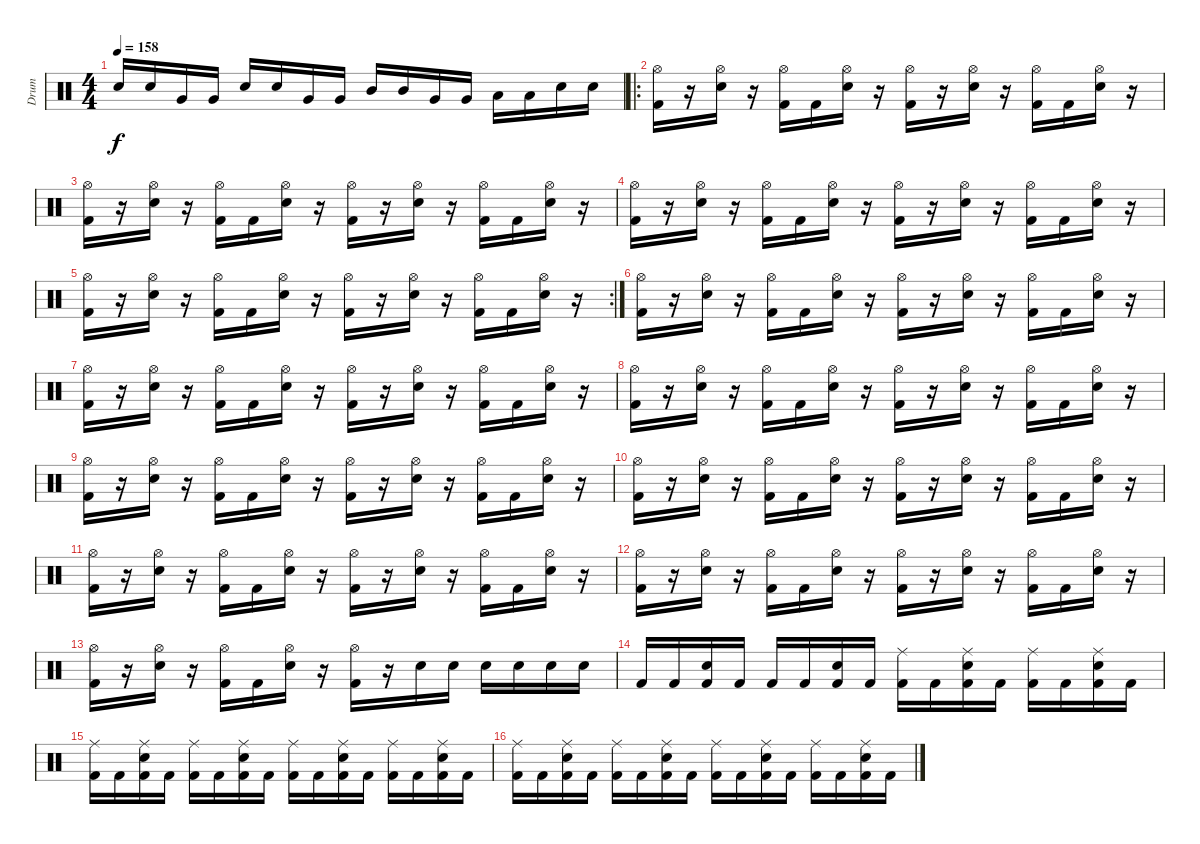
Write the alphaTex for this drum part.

\track ("Drum" "Drum") {instrument percussion}
\staff {score}
\articulation defaults
\ts (4 4)
\tempo 158
\clef neutral
\ks c "Electric Snare (hit)".16{dy f} "Electric Snare (hit)".16 "Very Low Tom (hit)".16 "Very Low Tom (hit)".16 "Electric Snare (hit)".16 "Electric Snare (hit)".16 "Very Low Tom (hit)".16 "Very Low Tom (hit)".16 "Mid Tom (hit)".16 "Mid Tom (hit)".16 "Very Low Tom (hit)".16 "Very Low Tom (hit)".16 "Low Floor Tom (hit)".16 "Low Floor Tom (hit)".16 "Electric Snare (hit)".16 "Electric Snare (hit)".16
|
\ro
("Hi-Hat (open)" "Kick (hit) 2").16 r.16 ("Hi-Hat (open)" "Electric Snare (hit)").16 r.16 ("Hi-Hat (open)" "Kick (hit) 2").16 "Kick (hit) 2".16 ("Hi-Hat (open)" "Electric Snare (hit)").16 r.16 ("Hi-Hat (open)" "Kick (hit) 2").16 r.16 ("Hi-Hat (open)" "Electric Snare (hit)").16 r.16 ("Hi-Hat (open)" "Kick (hit) 2").16 "Kick (hit) 2".16 ("Hi-Hat (open)" "Electric Snare (hit)").16 r.16 |
("Hi-Hat (open)" "Kick (hit) 2").16 r.16 ("Hi-Hat (open)" "Electric Snare (hit)").16 r.16 ("Hi-Hat (open)" "Kick (hit) 2").16 "Kick (hit) 2".16 ("Hi-Hat (open)" "Electric Snare (hit)").16 r.16 ("Hi-Hat (open)" "Kick (hit) 2").16 r.16 ("Hi-Hat (open)" "Electric Snare (hit)").16 r.16 ("Hi-Hat (open)" "Kick (hit) 2").16 "Kick (hit) 2".16 ("Hi-Hat (open)" "Electric Snare (hit)").16 r.16 |
("Hi-Hat (open)" "Kick (hit) 2").16 r.16 ("Hi-Hat (open)" "Electric Snare (hit)").16 r.16 ("Hi-Hat (open)" "Kick (hit) 2").16 "Kick (hit) 2".16 ("Hi-Hat (open)" "Electric Snare (hit)").16 r.16 ("Hi-Hat (open)" "Kick (hit) 2").16 r.16 ("Hi-Hat (open)" "Electric Snare (hit)").16 r.16 ("Hi-Hat (open)" "Kick (hit) 2").16 "Kick (hit) 2".16 ("Hi-Hat (open)" "Electric Snare (hit)").16 r.16 |
\rc 2
("Hi-Hat (open)" "Kick (hit) 2").16 r.16 ("Hi-Hat (open)" "Electric Snare (hit)").16 r.16 ("Hi-Hat (open)" "Kick (hit) 2").16 "Kick (hit) 2".16 ("Hi-Hat (open)" "Electric Snare (hit)").16 r.16 ("Hi-Hat (open)" "Kick (hit) 2").16 r.16 ("Hi-Hat (open)" "Electric Snare (hit)").16 r.16 ("Hi-Hat (open)" "Kick (hit) 2").16 "Kick (hit) 2".16 ("Hi-Hat (open)" "Electric Snare (hit)").16 r.16 |
("Hi-Hat (open)" "Kick (hit) 2").16 r.16 ("Hi-Hat (open)" "Electric Snare (hit)").16 r.16 ("Hi-Hat (open)" "Kick (hit) 2").16 "Kick (hit) 2".16 ("Hi-Hat (open)" "Electric Snare (hit)").16 r.16 ("Hi-Hat (open)" "Kick (hit) 2").16 r.16 ("Hi-Hat (open)" "Electric Snare (hit)").16 r.16 ("Hi-Hat (open)" "Kick (hit) 2").16 "Kick (hit) 2".16 ("Hi-Hat (open)" "Electric Snare (hit)").16 r.16 |
("Hi-Hat (open)" "Kick (hit) 2").16 r.16 ("Hi-Hat (open)" "Electric Snare (hit)").16 r.16 ("Hi-Hat (open)" "Kick (hit) 2").16 "Kick (hit) 2".16 ("Hi-Hat (open)" "Electric Snare (hit)").16 r.16 ("Hi-Hat (open)" "Kick (hit) 2").16 r.16 ("Hi-Hat (open)" "Electric Snare (hit)").16 r.16 ("Hi-Hat (open)" "Kick (hit) 2").16 "Kick (hit) 2".16 ("Hi-Hat (open)" "Electric Snare (hit)").16 r.16 |
("Hi-Hat (open)" "Kick (hit) 2").16 r.16 ("Hi-Hat (open)" "Electric Snare (hit)").16 r.16 ("Hi-Hat (open)" "Kick (hit) 2").16 "Kick (hit) 2".16 ("Hi-Hat (open)" "Electric Snare (hit)").16 r.16 ("Hi-Hat (open)" "Kick (hit) 2").16 r.16 ("Hi-Hat (open)" "Electric Snare (hit)").16 r.16 ("Hi-Hat (open)" "Kick (hit) 2").16 "Kick (hit) 2".16 ("Hi-Hat (open)" "Electric Snare (hit)").16 r.16 |
("Hi-Hat (open)" "Kick (hit) 2").16 r.16 ("Hi-Hat (open)" "Electric Snare (hit)").16 r.16 ("Hi-Hat (open)" "Kick (hit) 2").16 "Kick (hit) 2".16 ("Hi-Hat (open)" "Electric Snare (hit)").16 r.16 ("Hi-Hat (open)" "Kick (hit) 2").16 r.16 ("Hi-Hat (open)" "Electric Snare (hit)").16 r.16 ("Hi-Hat (open)" "Kick (hit) 2").16 "Kick (hit) 2".16 ("Hi-Hat (open)" "Electric Snare (hit)").16 r.16 |
("Hi-Hat (open)" "Kick (hit) 2").16 r.16 ("Hi-Hat (open)" "Electric Snare (hit)").16 r.16 ("Hi-Hat (open)" "Kick (hit) 2").16 "Kick (hit) 2".16 ("Hi-Hat (open)" "Electric Snare (hit)").16 r.16 ("Hi-Hat (open)" "Kick (hit) 2").16 r.16 ("Hi-Hat (open)" "Electric Snare (hit)").16 r.16 ("Hi-Hat (open)" "Kick (hit) 2").16 "Kick (hit) 2".16 ("Hi-Hat (open)" "Electric Snare (hit)").16 r.16 |
("Hi-Hat (open)" "Kick (hit) 2").16 r.16 ("Hi-Hat (open)" "Electric Snare (hit)").16 r.16 ("Hi-Hat (open)" "Kick (hit) 2").16 "Kick (hit) 2".16 ("Hi-Hat (open)" "Electric Snare (hit)").16 r.16 ("Hi-Hat (open)" "Kick (hit) 2").16 r.16 ("Hi-Hat (open)" "Electric Snare (hit)").16 r.16 ("Hi-Hat (open)" "Kick (hit) 2").16 "Kick (hit) 2".16 ("Hi-Hat (open)" "Electric Snare (hit)").16 r.16 |
("Hi-Hat (open)" "Kick (hit) 2").16 r.16 ("Hi-Hat (open)" "Electric Snare (hit)").16 r.16 ("Hi-Hat (open)" "Kick (hit) 2").16 "Kick (hit) 2".16 ("Hi-Hat (open)" "Electric Snare (hit)").16 r.16 ("Hi-Hat (open)" "Kick (hit) 2").16 r.16 ("Hi-Hat (open)" "Electric Snare (hit)").16 r.16 ("Hi-Hat (open)" "Kick (hit) 2").16 "Kick (hit) 2".16 ("Hi-Hat (open)" "Electric Snare (hit)").16 r.16 |
("Hi-Hat (open)" "Kick (hit) 2").16 r.16 ("Hi-Hat (open)" "Electric Snare (hit)").16 r.16 ("Hi-Hat (open)" "Kick (hit) 2").16 "Kick (hit) 2".16 ("Hi-Hat (open)" "Electric Snare (hit)").16 r.16 ("Hi-Hat (open)" "Kick (hit) 2").16 r.16 "Electric Snare (hit)".16 "Electric Snare (hit)".16 "Electric Snare (hit)".16 "Electric Snare (hit)".16 "Electric Snare (hit)".16 "Electric Snare (hit)".16 |
"Kick (hit) 2".16 "Kick (hit) 2".16 ("Electric Snare (hit)" "Kick (hit) 2").16 "Kick (hit) 2".16 "Kick (hit) 2".16 "Kick (hit) 2".16 ("Electric Snare (hit)" "Kick (hit) 2").16 "Kick (hit) 2".16 ("Kick (hit) 2" "Ride (middle)").16 "Kick (hit) 2".16 ("Electric Snare (hit)" "Kick (hit) 2" "Ride (middle)").16 "Kick (hit) 2".16 ("Kick (hit) 2" "Ride (middle)").16 "Kick (hit) 2".16 ("Electric Snare (hit)" "Kick (hit) 2" "Ride (middle)").16 "Kick (hit) 2".16 |
("Kick (hit) 2" "Ride (middle)").16 "Kick (hit) 2".16 ("Electric Snare (hit)" "Kick (hit) 2" "Ride (middle)").16 "Kick (hit) 2".16 ("Kick (hit) 2" "Ride (middle)").16 "Kick (hit) 2".16 ("Electric Snare (hit)" "Kick (hit) 2" "Ride (middle)").16 "Kick (hit) 2".16 ("Kick (hit) 2" "Ride (middle)").16 "Kick (hit) 2".16 ("Electric Snare (hit)" "Kick (hit) 2" "Ride (middle)").16 "Kick (hit) 2".16 ("Kick (hit) 2" "Ride (middle)").16 "Kick (hit) 2".16 ("Electric Snare (hit)" "Kick (hit) 2" "Ride (middle)").16 "Kick (hit) 2".16 |
("Kick (hit) 2" "Ride (middle)").16 "Kick (hit) 2".16 ("Electric Snare (hit)" "Kick (hit) 2" "Ride (middle)").16 "Kick (hit) 2".16 ("Kick (hit) 2" "Ride (middle)").16 "Kick (hit) 2".16 ("Electric Snare (hit)" "Kick (hit) 2" "Ride (middle)").16 "Kick (hit) 2".16 ("Kick (hit) 2" "Ride (middle)").16 "Kick (hit) 2".16 ("Electric Snare (hit)" "Kick (hit) 2" "Ride (middle)").16 "Kick (hit) 2".16 ("Kick (hit) 2" "Ride (middle)").16 "Kick (hit) 2".16 ("Electric Snare (hit)" "Kick (hit) 2" "Ride (middle)").16 "Kick (hit) 2".16
